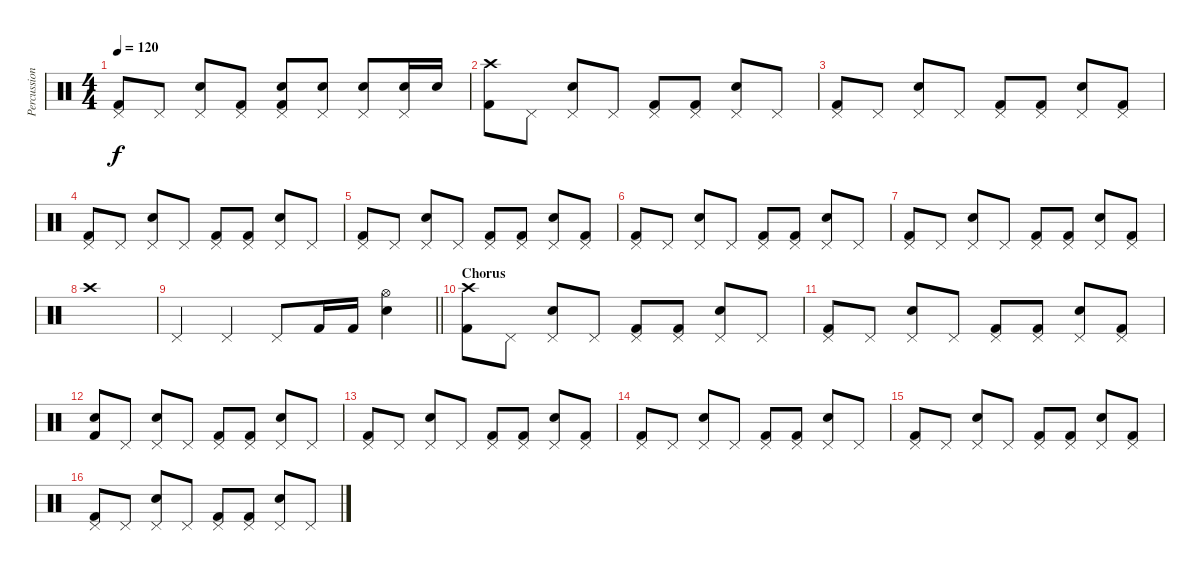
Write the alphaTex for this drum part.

\track ("Percussion" "Percussion") {instrument percussion}
\staff {score}
\articulation defaults
\ts (4 4)
\tempo 120
\clef neutral
\ks c
("Pedal Hi-Hat (hit)" "Kick (hit) 2").8{dy f} "Pedal Hi-Hat (hit)".8 ("Pedal Hi-Hat (hit)" "Snare (hit) 2").8 ("Pedal Hi-Hat (hit)" "Kick (hit) 2").8 ("Pedal Hi-Hat (hit)" "Snare (hit) 2" "Kick (hit) 2").8 ("Pedal Hi-Hat (hit)" "Snare (hit) 2").8 ("Pedal Hi-Hat (hit)" "Snare (hit) 2").8 ("Pedal Hi-Hat (hit)" "Snare (hit) 2").16 "Snare (hit) 2".16 |
("Crash high (hit)" "Kick (hit) 2").8 "Pedal Hi-Hat (hit)".8 ("Pedal Hi-Hat (hit)" "Snare (hit) 2").8 "Pedal Hi-Hat (hit)".8 ("Pedal Hi-Hat (hit)" "Kick (hit) 2").8 ("Pedal Hi-Hat (hit)" "Kick (hit) 2").8 ("Pedal Hi-Hat (hit)" "Snare (hit) 2").8 "Pedal Hi-Hat (hit)".8 |
("Pedal Hi-Hat (hit)" "Kick (hit) 2").8 "Pedal Hi-Hat (hit)".8 ("Pedal Hi-Hat (hit)" "Snare (hit) 2").8 "Pedal Hi-Hat (hit)".8 ("Pedal Hi-Hat (hit)" "Kick (hit) 2").8 ("Pedal Hi-Hat (hit)" "Kick (hit) 2").8 ("Pedal Hi-Hat (hit)" "Snare (hit) 2").8 ("Pedal Hi-Hat (hit)" "Kick (hit) 2").8 |
("Pedal Hi-Hat (hit)" "Kick (hit) 2").8 "Pedal Hi-Hat (hit)".8 ("Pedal Hi-Hat (hit)" "Snare (hit) 2").8 "Pedal Hi-Hat (hit)".8 ("Pedal Hi-Hat (hit)" "Kick (hit) 2").8 ("Pedal Hi-Hat (hit)" "Kick (hit) 2").8 ("Pedal Hi-Hat (hit)" "Snare (hit) 2").8 "Pedal Hi-Hat (hit)".8 |
("Pedal Hi-Hat (hit)" "Kick (hit) 2").8 "Pedal Hi-Hat (hit)".8 ("Pedal Hi-Hat (hit)" "Snare (hit) 2").8 "Pedal Hi-Hat (hit)".8 ("Pedal Hi-Hat (hit)" "Kick (hit) 2").8 ("Pedal Hi-Hat (hit)" "Kick (hit) 2").8 ("Pedal Hi-Hat (hit)" "Snare (hit) 2").8 ("Pedal Hi-Hat (hit)" "Kick (hit) 2").8 |
("Pedal Hi-Hat (hit)" "Kick (hit) 2").8 "Pedal Hi-Hat (hit)".8 ("Pedal Hi-Hat (hit)" "Snare (hit) 2").8 "Pedal Hi-Hat (hit)".8 ("Pedal Hi-Hat (hit)" "Kick (hit) 2").8 ("Pedal Hi-Hat (hit)" "Kick (hit) 2").8 ("Pedal Hi-Hat (hit)" "Snare (hit) 2").8 "Pedal Hi-Hat (hit)".8 |
("Pedal Hi-Hat (hit)" "Kick (hit) 2").8 "Pedal Hi-Hat (hit)".8 ("Pedal Hi-Hat (hit)" "Snare (hit) 2").8 "Pedal Hi-Hat (hit)".8 ("Pedal Hi-Hat (hit)" "Kick (hit) 2").8 ("Pedal Hi-Hat (hit)" "Kick (hit) 2").8 ("Pedal Hi-Hat (hit)" "Snare (hit) 2").8 ("Pedal Hi-Hat (hit)" "Kick (hit) 2").8 |
"Crash high (hit)".1 |
\barLineRight lightlight "Pedal Hi-Hat (hit)".4 "Pedal Hi-Hat (hit)".4 "Pedal Hi-Hat (hit)".8 "Kick (hit) 2".16 "Kick (hit) 2".16
("Hi-Hat (open)" "Snare (hit) 2").4 |
\section ("" "Chorus")
("Crash high (hit)" "Kick (hit) 2").8 "Pedal Hi-Hat (hit)".8 ("Pedal Hi-Hat (hit)" "Snare (hit) 2").8 "Pedal Hi-Hat (hit)".8 ("Pedal Hi-Hat (hit)" "Kick (hit) 2").8 ("Pedal Hi-Hat (hit)" "Kick (hit) 2").8 ("Pedal Hi-Hat (hit)" "Snare (hit) 2").8 "Pedal Hi-Hat (hit)".8 |
("Pedal Hi-Hat (hit)" "Kick (hit) 2").8 "Pedal Hi-Hat (hit)".8 ("Pedal Hi-Hat (hit)" "Snare (hit) 2").8 "Pedal Hi-Hat (hit)".8 ("Pedal Hi-Hat (hit)" "Kick (hit) 2").8 ("Pedal Hi-Hat (hit)" "Kick (hit) 2").8 ("Pedal Hi-Hat (hit)" "Snare (hit) 2").8 ("Pedal Hi-Hat (hit)" "Kick (hit) 2").8 |
("Snare (hit)" "Kick (hit) 2").8 "Pedal Hi-Hat (hit)".8 ("Pedal Hi-Hat (hit)" "Snare (hit) 2").8 "Pedal Hi-Hat (hit)".8 ("Pedal Hi-Hat (hit)" "Kick (hit) 2").8 ("Pedal Hi-Hat (hit)" "Kick (hit) 2").8 ("Pedal Hi-Hat (hit)" "Snare (hit) 2").8 "Pedal Hi-Hat (hit)".8 |
("Pedal Hi-Hat (hit)" "Kick (hit) 2").8 "Pedal Hi-Hat (hit)".8 ("Pedal Hi-Hat (hit)" "Snare (hit) 2").8 "Pedal Hi-Hat (hit)".8 ("Pedal Hi-Hat (hit)" "Kick (hit) 2").8 ("Pedal Hi-Hat (hit)" "Kick (hit) 2").8 ("Pedal Hi-Hat (hit)" "Snare (hit) 2").8 ("Pedal Hi-Hat (hit)" "Kick (hit) 2").8 |
("Pedal Hi-Hat (hit)" "Kick (hit) 2").8 "Pedal Hi-Hat (hit)".8 ("Pedal Hi-Hat (hit)" "Snare (hit) 2").8 "Pedal Hi-Hat (hit)".8 ("Pedal Hi-Hat (hit)" "Kick (hit) 2").8 ("Pedal Hi-Hat (hit)" "Kick (hit) 2").8 ("Pedal Hi-Hat (hit)" "Snare (hit) 2").8 "Pedal Hi-Hat (hit)".8 |
("Pedal Hi-Hat (hit)" "Kick (hit) 2").8 "Pedal Hi-Hat (hit)".8 ("Pedal Hi-Hat (hit)" "Snare (hit) 2").8 "Pedal Hi-Hat (hit)".8 ("Pedal Hi-Hat (hit)" "Kick (hit) 2").8 ("Pedal Hi-Hat (hit)" "Kick (hit) 2").8 ("Pedal Hi-Hat (hit)" "Snare (hit) 2").8 ("Pedal Hi-Hat (hit)" "Kick (hit) 2").8 |
("Pedal Hi-Hat (hit)" "Kick (hit) 2").8 "Pedal Hi-Hat (hit)".8 ("Pedal Hi-Hat (hit)" "Snare (hit) 2").8 "Pedal Hi-Hat (hit)".8 ("Pedal Hi-Hat (hit)" "Kick (hit) 2").8 ("Pedal Hi-Hat (hit)" "Kick (hit) 2").8 ("Pedal Hi-Hat (hit)" "Snare (hit) 2").8 "Pedal Hi-Hat (hit)".8
